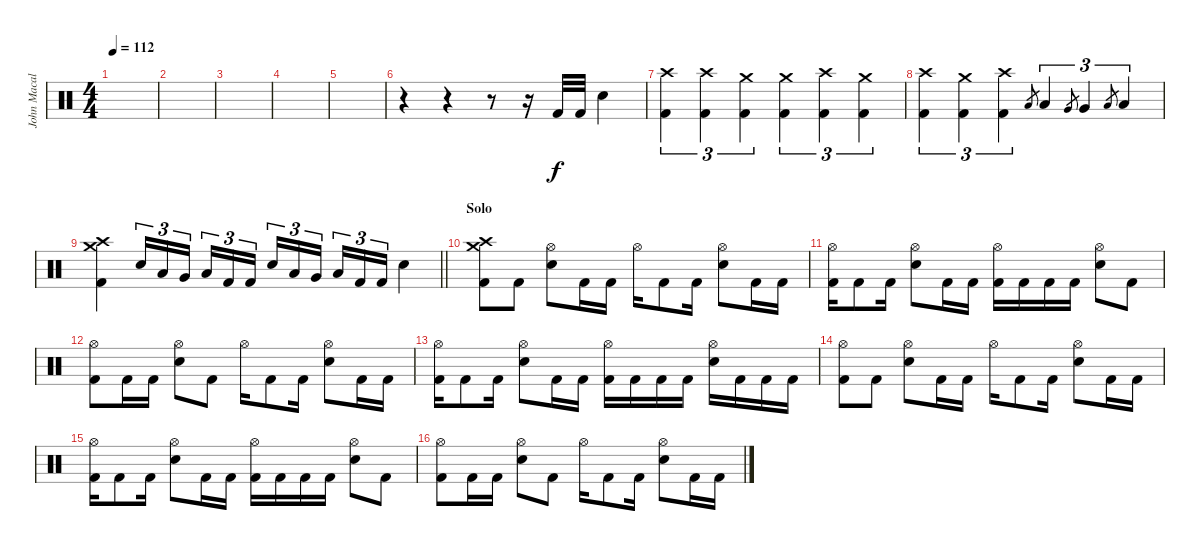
\track ("John Macaluso" "John Macal") {instrument percussion}
\staff {score}
\articulation defaults
\ts (4 4)
\tempo 112
\clef neutral
\ks c
|
|
|
|
|
r.4 r.4 r.8 r.16 "Kick (hit) 2".32 "Kick (hit) 2".32 "Snare (hit) 2".4 |
("Crash high (hit)" "Kick (hit) 2").4{tu (3 2)} ("Crash high (hit)" "Kick (hit) 2").4{tu (3 2)} ("Crash medium (hit)" "Kick (hit) 2").4{tu (3 2)} ("Crash medium (hit)" "Kick (hit) 2").4{tu (3 2)} ("Crash high (hit)" "Kick (hit) 2").4{tu (3 2)} ("Crash medium (hit)" "Kick (hit) 2").4{tu (3 2)} |
("Crash high (hit)" "Kick (hit) 2").4{tu (3 2)} ("Crash medium (hit)" "Kick (hit) 2").4{tu (3 2)} ("Crash high (hit)" "Kick (hit) 2").4{tu (3 2)} "Low Tom (hit)".8{gr} "Low Tom (hit)".4{tu (3 2)} "Very Low Tom (hit)".8{gr} "Very Low Tom (hit)".4{tu (3 2)} "Low Floor Tom (hit)".8{gr} "Low Floor Tom (hit)".4{tu (3 2)} |
\barLineRight lightlight
("Crash medium (hit)" "Crash high (hit)" "Kick (hit) 2").4 "Snare (hit) 2".16{tu (3 2)} "Low Tom (hit)".16{tu (3 2)} "Very Low Tom (hit)".16{tu (3 2) beam splitsecondary} "Low Floor Tom (hit)".16{tu (3 2)} "Kick (hit) 2".16{tu (3 2)} "Kick (hit) 2".16{tu (3 2)} "Snare (hit) 2".16{tu (3 2)} "Low Tom (hit)".16{tu (3 2)} "Very Low Tom (hit)".16{tu (3 2) beam splitsecondary} "Low Floor Tom (hit)".16{tu (3 2)} "Kick (hit) 2".16{tu (3 2)} "Kick (hit) 2".16{tu (3 2)} "Snare (hit) 2".4 |
\section ("" "Solo")
("Crash medium (hit)" "Crash high (hit)" "Kick (hit) 2").8 "Kick (hit) 2".8 ("Hi-Hat (open)" "Snare (hit) 2").8 "Kick (hit) 2".16 "Kick (hit) 2".16 "Hi-Hat (open)".16 "Kick (hit) 2".8 "Kick (hit) 2".16 ("Hi-Hat (open)" "Snare (hit) 2").8 "Kick (hit) 2".16 "Kick (hit) 2".16 |
("Hi-Hat (open)" "Kick (hit) 2").16 "Kick (hit) 2".8 "Kick (hit) 2".16 ("Hi-Hat (open)" "Snare (hit) 2").8 "Kick (hit) 2".16 "Kick (hit) 2".16 ("Hi-Hat (open)" "Kick (hit) 2").16 "Kick (hit) 2".16 "Kick (hit) 2".16 "Kick (hit) 2".16 ("Hi-Hat (open)" "Snare (hit) 2").8 "Kick (hit) 2".8 |
("Hi-Hat (open)" "Kick (hit) 2").8 "Kick (hit) 2".16 "Kick (hit) 2".16 ("Hi-Hat (open)" "Snare (hit) 2").8 "Kick (hit) 2".8 "Hi-Hat (open)".16 "Kick (hit) 2".8 "Kick (hit) 2".16 ("Hi-Hat (open)" "Snare (hit) 2").8 "Kick (hit) 2".16 "Kick (hit) 2".16 |
("Hi-Hat (open)" "Kick (hit) 2").16 "Kick (hit) 2".8 "Kick (hit) 2".16 ("Hi-Hat (open)" "Snare (hit) 2").8 "Kick (hit) 2".16 "Kick (hit) 2".16 ("Hi-Hat (open)" "Kick (hit) 2").16 "Kick (hit) 2".16 "Kick (hit) 2".16 "Kick (hit) 2".16 ("Hi-Hat (open)" "Snare (hit) 2").16 "Kick (hit) 2".16 "Kick (hit) 2".16 "Kick (hit) 2".16 |
("Hi-Hat (open)" "Kick (hit) 2").8 "Kick (hit) 2".8 ("Hi-Hat (open)" "Snare (hit) 2").8 "Kick (hit) 2".16 "Kick (hit) 2".16 "Hi-Hat (open)".16 "Kick (hit) 2".8 "Kick (hit) 2".16 ("Hi-Hat (open)" "Snare (hit) 2").8 "Kick (hit) 2".16 "Kick (hit) 2".16 |
("Hi-Hat (open)" "Kick (hit) 2").16 "Kick (hit) 2".8 "Kick (hit) 2".16 ("Hi-Hat (open)" "Snare (hit) 2").8 "Kick (hit) 2".16 "Kick (hit) 2".16 ("Hi-Hat (open)" "Kick (hit) 2").16 "Kick (hit) 2".16 "Kick (hit) 2".16 "Kick (hit) 2".16 ("Hi-Hat (open)" "Snare (hit) 2").8 "Kick (hit) 2".8 |
("Hi-Hat (open)" "Kick (hit) 2").8 "Kick (hit) 2".16 "Kick (hit) 2".16 ("Hi-Hat (open)" "Snare (hit) 2").8 "Kick (hit) 2".8 "Hi-Hat (open)".16 "Kick (hit) 2".8 "Kick (hit) 2".16 ("Hi-Hat (open)" "Snare (hit) 2").8 "Kick (hit) 2".16 "Kick (hit) 2".16
